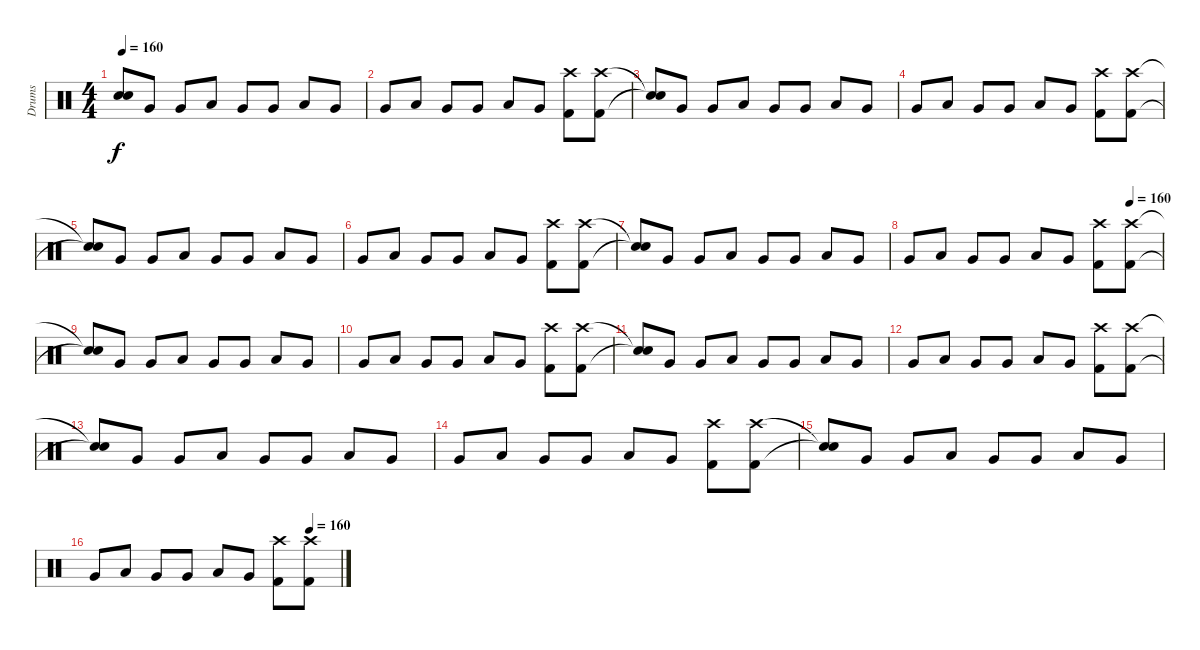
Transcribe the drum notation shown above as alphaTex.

\track ("Drums" "Drums") {instrument percussion}
\staff {score}
\articulation defaults
\ts (4 4)
\tempo 160
\clef neutral
\ks c
("Snare (hit)"{t} "Snare (hit)"{t}).8{dy f} "Very Low Tom (hit)".8 "Very Low Tom (hit)".8 "Low Floor Tom (hit)".8 "Very Low Tom (hit)".8 "Very Low Tom (hit)".8 "Low Floor Tom (hit)".8 "Very Low Tom (hit)".8 |
"Very Low Tom (hit)".8 "Low Floor Tom (hit)".8 "Very Low Tom (hit)".8 "Very Low Tom (hit)".8 "Low Floor Tom (hit)".8 "Very Low Tom (hit)".8 ("Crash high (hit)" "Kick (hit) 2").8 ("Crash high (hit)" "Kick (hit) 2").8 |
("Snare (hit)"{t} "Snare (hit)"{t}).8 "Very Low Tom (hit)".8 "Very Low Tom (hit)".8 "Low Floor Tom (hit)".8 "Very Low Tom (hit)".8 "Very Low Tom (hit)".8 "Low Floor Tom (hit)".8 "Very Low Tom (hit)".8 |
"Very Low Tom (hit)".8 "Low Floor Tom (hit)".8 "Very Low Tom (hit)".8 "Very Low Tom (hit)".8 "Low Floor Tom (hit)".8 "Very Low Tom (hit)".8 ("Crash high (hit)" "Kick (hit) 2").8 ("Crash high (hit)" "Kick (hit) 2").8 |
("Snare (hit)"{t} "Snare (hit)"{t}).8 "Very Low Tom (hit)".8 "Very Low Tom (hit)".8 "Low Floor Tom (hit)".8 "Very Low Tom (hit)".8 "Very Low Tom (hit)".8 "Low Floor Tom (hit)".8 "Very Low Tom (hit)".8 |
"Very Low Tom (hit)".8 "Low Floor Tom (hit)".8 "Very Low Tom (hit)".8 "Very Low Tom (hit)".8 "Low Floor Tom (hit)".8 "Very Low Tom (hit)".8 ("Crash high (hit)" "Kick (hit) 2").8 ("Crash high (hit)" "Kick (hit) 2").8 |
("Snare (hit)"{t} "Snare (hit)"{t}).8 "Very Low Tom (hit)".8 "Very Low Tom (hit)".8 "Low Floor Tom (hit)".8 "Very Low Tom (hit)".8 "Very Low Tom (hit)".8 "Low Floor Tom (hit)".8 "Very Low Tom (hit)".8 |
\tempo (160 0.875)
"Very Low Tom (hit)".8 "Low Floor Tom (hit)".8 "Very Low Tom (hit)".8 "Very Low Tom (hit)".8 "Low Floor Tom (hit)".8 "Very Low Tom (hit)".8 ("Crash high (hit)" "Kick (hit) 2").8 ("Crash high (hit)" "Kick (hit) 2").8 |
("Snare (hit)"{t} "Snare (hit)"{t}).8 "Very Low Tom (hit)".8 "Very Low Tom (hit)".8 "Low Floor Tom (hit)".8 "Very Low Tom (hit)".8 "Very Low Tom (hit)".8 "Low Floor Tom (hit)".8 "Very Low Tom (hit)".8 |
"Very Low Tom (hit)".8 "Low Floor Tom (hit)".8 "Very Low Tom (hit)".8 "Very Low Tom (hit)".8 "Low Floor Tom (hit)".8 "Very Low Tom (hit)".8 ("Crash high (hit)" "Kick (hit) 2").8 ("Crash high (hit)" "Kick (hit) 2").8 |
("Snare (hit)"{t} "Snare (hit)"{t}).8 "Very Low Tom (hit)".8 "Very Low Tom (hit)".8 "Low Floor Tom (hit)".8 "Very Low Tom (hit)".8 "Very Low Tom (hit)".8 "Low Floor Tom (hit)".8 "Very Low Tom (hit)".8 |
"Very Low Tom (hit)".8 "Low Floor Tom (hit)".8 "Very Low Tom (hit)".8 "Very Low Tom (hit)".8 "Low Floor Tom (hit)".8 "Very Low Tom (hit)".8 ("Crash high (hit)" "Kick (hit) 2").8 ("Crash high (hit)" "Kick (hit) 2").8 |
("Snare (hit)"{t} "Snare (hit)"{t}).8 "Very Low Tom (hit)".8 "Very Low Tom (hit)".8 "Low Floor Tom (hit)".8 "Very Low Tom (hit)".8 "Very Low Tom (hit)".8 "Low Floor Tom (hit)".8 "Very Low Tom (hit)".8 |
"Very Low Tom (hit)".8 "Low Floor Tom (hit)".8 "Very Low Tom (hit)".8 "Very Low Tom (hit)".8 "Low Floor Tom (hit)".8 "Very Low Tom (hit)".8 ("Crash high (hit)" "Kick (hit) 2").8 ("Crash high (hit)" "Kick (hit) 2").8 |
("Snare (hit)"{t} "Snare (hit)"{t}).8 "Very Low Tom (hit)".8 "Very Low Tom (hit)".8 "Low Floor Tom (hit)".8 "Very Low Tom (hit)".8 "Very Low Tom (hit)".8 "Low Floor Tom (hit)".8 "Very Low Tom (hit)".8 |
\tempo (160 0.875)
"Very Low Tom (hit)".8 "Low Floor Tom (hit)".8 "Very Low Tom (hit)".8 "Very Low Tom (hit)".8 "Low Floor Tom (hit)".8 "Very Low Tom (hit)".8 ("Crash high (hit)" "Kick (hit) 2").8 ("Crash high (hit)" "Kick (hit) 2").8
